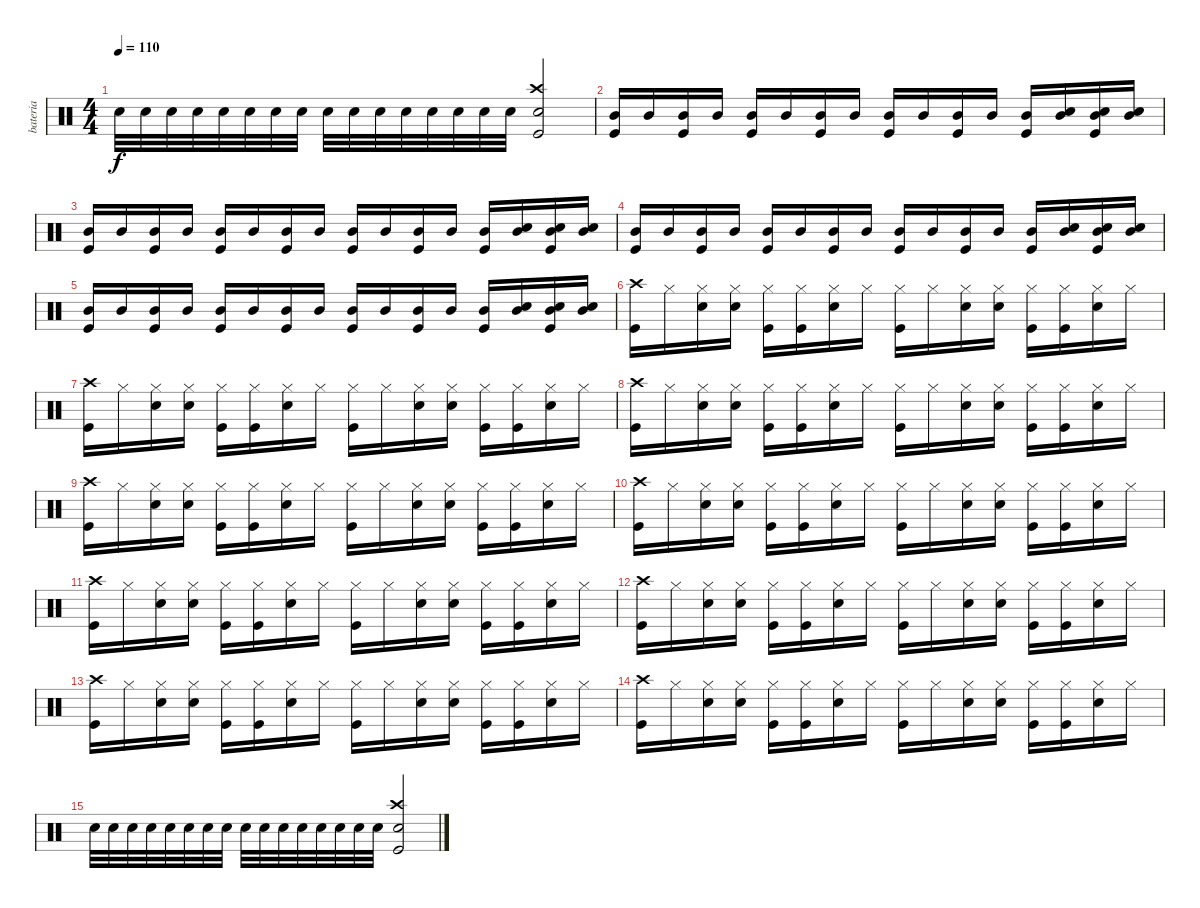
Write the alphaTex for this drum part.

\track ("bateria" "bateria") {instrument percussion}
\staff {score}
\articulation defaults
\ts (4 4)
\tempo 110
\clef neutral
\ks c "Snare (hit) 2".32{dy f} "Snare (hit) 2".32 "Snare (hit) 2".32 "Snare (hit) 2".32 "Snare (hit) 2".32 "Snare (hit) 2".32 "Snare (hit) 2".32 "Snare (hit) 2".32 "Snare (hit) 2".32 "Snare (hit) 2".32 "Snare (hit) 2".32 "Snare (hit) 2".32 "Snare (hit) 2".32 "Snare (hit) 2".32 "Snare (hit) 2".32 "Snare (hit) 2".32
("Crash high (hit)" "Snare (hit) 2" "Kick (hit)").2 |
("Mid Tom (hit)" "Kick (hit)").16 "Mid Tom (hit)".16 ("Mid Tom (hit)" "Kick (hit)").16 "Mid Tom (hit)".16 ("Mid Tom (hit)" "Kick (hit)").16 "Mid Tom (hit)".16 ("Mid Tom (hit)" "Kick (hit)").16 "Mid Tom (hit)".16 ("Mid Tom (hit)" "Kick (hit)").16 "Mid Tom (hit)".16 ("Mid Tom (hit)" "Kick (hit)").16 "Mid Tom (hit)".16 ("Mid Tom (hit)" "Kick (hit)").16 ("Snare (hit) 2" "Mid Tom (hit)").16 ("Snare (hit) 2" "Mid Tom (hit)" "Kick (hit)").16 ("Snare (hit) 2" "Mid Tom (hit)").16 |
("Mid Tom (hit)" "Kick (hit)").16 "Mid Tom (hit)".16 ("Mid Tom (hit)" "Kick (hit)").16 "Mid Tom (hit)".16 ("Mid Tom (hit)" "Kick (hit)").16 "Mid Tom (hit)".16 ("Mid Tom (hit)" "Kick (hit)").16 "Mid Tom (hit)".16 ("Mid Tom (hit)" "Kick (hit)").16 "Mid Tom (hit)".16 ("Mid Tom (hit)" "Kick (hit)").16 "Mid Tom (hit)".16 ("Mid Tom (hit)" "Kick (hit)").16 ("Snare (hit) 2" "Mid Tom (hit)").16 ("Snare (hit) 2" "Mid Tom (hit)" "Kick (hit)").16 ("Snare (hit) 2" "Mid Tom (hit)").16 |
("Mid Tom (hit)" "Kick (hit)").16 "Mid Tom (hit)".16 ("Mid Tom (hit)" "Kick (hit)").16 "Mid Tom (hit)".16 ("Mid Tom (hit)" "Kick (hit)").16 "Mid Tom (hit)".16 ("Mid Tom (hit)" "Kick (hit)").16 "Mid Tom (hit)".16 ("Mid Tom (hit)" "Kick (hit)").16 "Mid Tom (hit)".16 ("Mid Tom (hit)" "Kick (hit)").16 "Mid Tom (hit)".16 ("Mid Tom (hit)" "Kick (hit)").16 ("Snare (hit) 2" "Mid Tom (hit)").16 ("Snare (hit) 2" "Mid Tom (hit)" "Kick (hit)").16 ("Snare (hit) 2" "Mid Tom (hit)").16 |
("Mid Tom (hit)" "Kick (hit)").16 "Mid Tom (hit)".16 ("Mid Tom (hit)" "Kick (hit)").16 "Mid Tom (hit)".16 ("Mid Tom (hit)" "Kick (hit)").16 "Mid Tom (hit)".16 ("Mid Tom (hit)" "Kick (hit)").16 "Mid Tom (hit)".16 ("Mid Tom (hit)" "Kick (hit)").16 "Mid Tom (hit)".16 ("Mid Tom (hit)" "Kick (hit)").16 "Mid Tom (hit)".16 ("Mid Tom (hit)" "Kick (hit)").16 ("Snare (hit) 2" "Mid Tom (hit)").16 ("Snare (hit) 2" "Mid Tom (hit)" "Kick (hit)").16 ("Snare (hit) 2" "Mid Tom (hit)").16 |
("Crash high (hit)" "Kick (hit)").16 "Hi-Hat (closed)".16 ("Hi-Hat (closed)" "Snare (hit) 2").16 ("Hi-Hat (closed)" "Snare (hit) 2").16 ("Hi-Hat (closed)" "Kick (hit)").16 ("Hi-Hat (closed)" "Kick (hit)").16 ("Hi-Hat (closed)" "Snare (hit) 2").16 "Hi-Hat (closed)".16 ("Hi-Hat (closed)" "Kick (hit)").16 "Hi-Hat (closed)".16 ("Hi-Hat (closed)" "Snare (hit) 2").16 ("Hi-Hat (closed)" "Snare (hit) 2").16 ("Hi-Hat (closed)" "Kick (hit)").16 ("Hi-Hat (closed)" "Kick (hit)").16 ("Hi-Hat (closed)" "Snare (hit) 2").16 "Hi-Hat (closed)".16 |
("Crash high (hit)" "Kick (hit)").16 "Hi-Hat (closed)".16 ("Hi-Hat (closed)" "Snare (hit) 2").16 ("Hi-Hat (closed)" "Snare (hit) 2").16 ("Hi-Hat (closed)" "Kick (hit)").16 ("Hi-Hat (closed)" "Kick (hit)").16 ("Hi-Hat (closed)" "Snare (hit) 2").16 "Hi-Hat (closed)".16 ("Hi-Hat (closed)" "Kick (hit)").16 "Hi-Hat (closed)".16 ("Hi-Hat (closed)" "Snare (hit) 2").16 ("Hi-Hat (closed)" "Snare (hit) 2").16 ("Hi-Hat (closed)" "Kick (hit)").16 ("Hi-Hat (closed)" "Kick (hit)").16 ("Hi-Hat (closed)" "Snare (hit) 2").16 "Hi-Hat (closed)".16 |
("Crash high (hit)" "Kick (hit)").16 "Hi-Hat (closed)".16 ("Hi-Hat (closed)" "Snare (hit) 2").16 ("Hi-Hat (closed)" "Snare (hit) 2").16 ("Hi-Hat (closed)" "Kick (hit)").16 ("Hi-Hat (closed)" "Kick (hit)").16 ("Hi-Hat (closed)" "Snare (hit) 2").16 "Hi-Hat (closed)".16 ("Hi-Hat (closed)" "Kick (hit)").16 "Hi-Hat (closed)".16 ("Hi-Hat (closed)" "Snare (hit) 2").16 ("Hi-Hat (closed)" "Snare (hit) 2").16 ("Hi-Hat (closed)" "Kick (hit)").16 ("Hi-Hat (closed)" "Kick (hit)").16 ("Hi-Hat (closed)" "Snare (hit) 2").16 "Hi-Hat (closed)".16 |
("Crash high (hit)" "Kick (hit)").16 "Hi-Hat (closed)".16 ("Hi-Hat (closed)" "Snare (hit) 2").16 ("Hi-Hat (closed)" "Snare (hit) 2").16 ("Hi-Hat (closed)" "Kick (hit)").16 ("Hi-Hat (closed)" "Kick (hit)").16 ("Hi-Hat (closed)" "Snare (hit) 2").16 "Hi-Hat (closed)".16 ("Hi-Hat (closed)" "Kick (hit)").16 "Hi-Hat (closed)".16 ("Hi-Hat (closed)" "Snare (hit) 2").16 ("Hi-Hat (closed)" "Snare (hit) 2").16 ("Hi-Hat (closed)" "Kick (hit)").16 ("Hi-Hat (closed)" "Kick (hit)").16 ("Hi-Hat (closed)" "Snare (hit) 2").16 "Hi-Hat (closed)".16 |
("Crash high (hit)" "Kick (hit)").16 "Hi-Hat (closed)".16 ("Hi-Hat (closed)" "Snare (hit) 2").16 ("Hi-Hat (closed)" "Snare (hit) 2").16 ("Hi-Hat (closed)" "Kick (hit)").16 ("Hi-Hat (closed)" "Kick (hit)").16 ("Hi-Hat (closed)" "Snare (hit) 2").16 "Hi-Hat (closed)".16 ("Hi-Hat (closed)" "Kick (hit)").16 "Hi-Hat (closed)".16 ("Hi-Hat (closed)" "Snare (hit) 2").16 ("Hi-Hat (closed)" "Snare (hit) 2").16 ("Hi-Hat (closed)" "Kick (hit)").16 ("Hi-Hat (closed)" "Kick (hit)").16 ("Hi-Hat (closed)" "Snare (hit) 2").16 "Hi-Hat (closed)".16 |
("Crash high (hit)" "Kick (hit)").16 "Hi-Hat (closed)".16 ("Hi-Hat (closed)" "Snare (hit) 2").16 ("Hi-Hat (closed)" "Snare (hit) 2").16 ("Hi-Hat (closed)" "Kick (hit)").16 ("Hi-Hat (closed)" "Kick (hit)").16 ("Hi-Hat (closed)" "Snare (hit) 2").16 "Hi-Hat (closed)".16 ("Hi-Hat (closed)" "Kick (hit)").16 "Hi-Hat (closed)".16 ("Hi-Hat (closed)" "Snare (hit) 2").16 ("Hi-Hat (closed)" "Snare (hit) 2").16 ("Hi-Hat (closed)" "Kick (hit)").16 ("Hi-Hat (closed)" "Kick (hit)").16 ("Hi-Hat (closed)" "Snare (hit) 2").16 "Hi-Hat (closed)".16 |
("Crash high (hit)" "Kick (hit)").16 "Hi-Hat (closed)".16 ("Hi-Hat (closed)" "Snare (hit) 2").16 ("Hi-Hat (closed)" "Snare (hit) 2").16 ("Hi-Hat (closed)" "Kick (hit)").16 ("Hi-Hat (closed)" "Kick (hit)").16 ("Hi-Hat (closed)" "Snare (hit) 2").16 "Hi-Hat (closed)".16 ("Hi-Hat (closed)" "Kick (hit)").16 "Hi-Hat (closed)".16 ("Hi-Hat (closed)" "Snare (hit) 2").16 ("Hi-Hat (closed)" "Snare (hit) 2").16 ("Hi-Hat (closed)" "Kick (hit)").16 ("Hi-Hat (closed)" "Kick (hit)").16 ("Hi-Hat (closed)" "Snare (hit) 2").16 "Hi-Hat (closed)".16 |
("Crash high (hit)" "Kick (hit)").16 "Hi-Hat (closed)".16 ("Hi-Hat (closed)" "Snare (hit) 2").16 ("Hi-Hat (closed)" "Snare (hit) 2").16 ("Hi-Hat (closed)" "Kick (hit)").16 ("Hi-Hat (closed)" "Kick (hit)").16 ("Hi-Hat (closed)" "Snare (hit) 2").16 "Hi-Hat (closed)".16 ("Hi-Hat (closed)" "Kick (hit)").16 "Hi-Hat (closed)".16 ("Hi-Hat (closed)" "Snare (hit) 2").16 ("Hi-Hat (closed)" "Snare (hit) 2").16 ("Hi-Hat (closed)" "Kick (hit)").16 ("Hi-Hat (closed)" "Kick (hit)").16 ("Hi-Hat (closed)" "Snare (hit) 2").16 "Hi-Hat (closed)".16 |
("Crash high (hit)" "Kick (hit)").16 "Hi-Hat (closed)".16 ("Hi-Hat (closed)" "Snare (hit) 2").16 ("Hi-Hat (closed)" "Snare (hit) 2").16 ("Hi-Hat (closed)" "Kick (hit)").16 ("Hi-Hat (closed)" "Kick (hit)").16 ("Hi-Hat (closed)" "Snare (hit) 2").16 "Hi-Hat (closed)".16 ("Hi-Hat (closed)" "Kick (hit)").16 "Hi-Hat (closed)".16 ("Hi-Hat (closed)" "Snare (hit) 2").16 ("Hi-Hat (closed)" "Snare (hit) 2").16 ("Hi-Hat (closed)" "Kick (hit)").16 ("Hi-Hat (closed)" "Kick (hit)").16 ("Hi-Hat (closed)" "Snare (hit) 2").16 "Hi-Hat (closed)".16 |
"Snare (hit) 2".32 "Snare (hit) 2".32 "Snare (hit) 2".32 "Snare (hit) 2".32 "Snare (hit) 2".32 "Snare (hit) 2".32 "Snare (hit) 2".32 "Snare (hit) 2".32 "Snare (hit) 2".32 "Snare (hit) 2".32 "Snare (hit) 2".32 "Snare (hit) 2".32 "Snare (hit) 2".32 "Snare (hit) 2".32 "Snare (hit) 2".32 "Snare (hit) 2".32 ("Crash high (hit)" "Snare (hit) 2" "Kick (hit)").2
